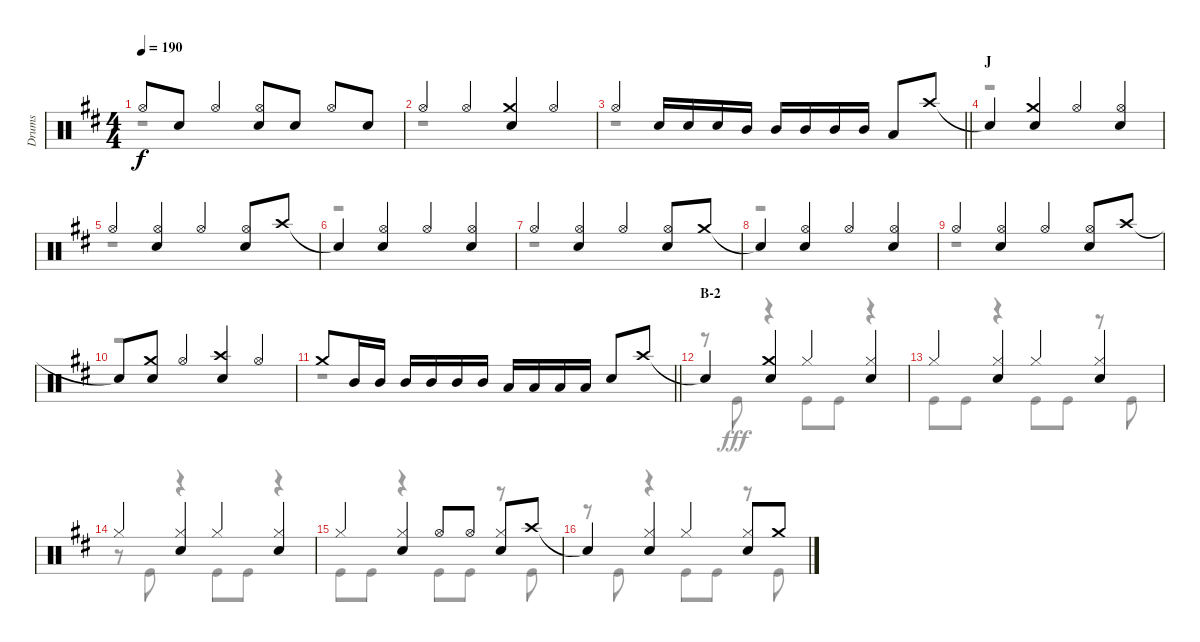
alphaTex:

\track ("Drums" "Drums") {instrument percussion}
\staff {score}
\articulation defaults
\voice
\ts (4 4)
\tempo 190
\clef neutral
\ks d "Hi-Hat (open)".8{dy f} "Snare (hit) 2".8 "Hi-Hat (open)".4
("Hi-Hat (open)" "Snare (hit) 2").8 "Snare (hit) 2".8 "Hi-Hat (open)".8 "Snare (hit) 2".8 |
"Hi-Hat (open)".4 "Hi-Hat (open)".4 ("Crash medium (hit)" "Snare (hit) 2").4 "Hi-Hat (open)".4 |
\barLineRight lightlight "Hi-Hat (open)".4 "Snare (hit) 2".16 "Snare (hit) 2".16 "Snare (hit) 2".16 "Mid Tom (hit)".16 "Mid Tom (hit)".16 "Mid Tom (hit)".16 "Mid Tom (hit)".16 "Mid Tom (hit)".16 "Low Tom (hit)".8 "Crash high (hit)".8
|
\section ("" "J")
"Snare (hit)"{t}.4 ("Crash medium (hit)" "Snare (hit) 2").4 "Hi-Hat (open)".4 ("Hi-Hat (open)" "Snare (hit) 2").4 |
"Hi-Hat (open)".4 ("Hi-Hat (open)" "Snare (hit) 2").4 "Hi-Hat (open)".4 ("Hi-Hat (open)" "Snare (hit) 2").8 "Crash high (hit)".8 |
"Snare (hit)"{t}.4 ("Hi-Hat (open)" "Snare (hit) 2").4 "Hi-Hat (open)".4 ("Hi-Hat (open)" "Snare (hit) 2").4 |
"Hi-Hat (open)".4 ("Hi-Hat (open)" "Snare (hit) 2").4 "Hi-Hat (open)".4 ("Hi-Hat (open)" "Snare (hit) 2").8 "Crash medium (hit)".8 |
"Snare (hit)"{t}.4 ("Hi-Hat (open)" "Snare (hit) 2").4 "Hi-Hat (open)".4 ("Hi-Hat (open)" "Snare (hit) 2").4 |
"Hi-Hat (open)".4 ("Hi-Hat (open)" "Snare (hit) 2").4 "Hi-Hat (open)".4 ("Hi-Hat (open)" "Snare (hit) 2").8 "Crash high (hit)".8 |
"Snare (hit)"{t}.8 ("Crash medium (hit)" "Snare (hit) 2").8 "Hi-Hat (open)".4 ("Crash high (hit)" "Snare (hit) 2").4 "Hi-Hat (open)".4 |
\barLineRight lightlight "Crash medium (hit)".8 "Mid Tom (hit)".16 "Mid Tom (hit)".16 "Mid Tom (hit)".16 "Mid Tom (hit)".16 "Mid Tom (hit)".16 "Mid Tom (hit)".16 "Low Tom (hit)".16 "Low Tom (hit)".16 "Low Tom (hit)".16 "Low Tom (hit)".16 "Snare (hit) 2".8 "Crash high (hit)".8
|
\section ("" "B-2")
"Snare (hit)"{t}.4 ("Crash medium (hit)" "Snare (hit) 2").4 "Hi-Hat (closed)".4 ("Hi-Hat (closed)" "Snare (hit) 2").4 |
"Hi-Hat (closed)".4 ("Hi-Hat (closed)" "Snare (hit) 2").4 "Hi-Hat (closed)".4 ("Hi-Hat (closed)" "Snare (hit) 2").4 |
"Hi-Hat (closed)".4 ("Hi-Hat (closed)" "Snare (hit) 2").4 "Hi-Hat (closed)".4 ("Hi-Hat (closed)" "Snare (hit) 2").4 |
"Hi-Hat (closed)".4 ("Hi-Hat (closed)" "Snare (hit) 2").4 "Hi-Hat (open)".8 "Hi-Hat (open)".8 ("Hi-Hat (closed)" "Snare (hit) 2").8 "Crash high (hit)".8 |
"Snare (hit)"{t}.4 ("Hi-Hat (closed)" "Snare (hit) 2").4 "Hi-Hat (closed)".4 ("Hi-Hat (closed)" "Snare (hit) 2").8 "Crash medium (hit)".8
\voice
\clef neutral
\ottava regular
\simile none
\ks d
r.1{dy fff} |
r.1 |
\barLineRight lightlight
r.1 |
r.1 |
r.1 |
r.1 |
r.1 |
r.1 |
r.1 |
r.1 |
\barLineRight lightlight
r.1 |
r.8 "Kick (hit)".8 r.4 "Kick (hit)".8 "Kick (hit)".8 r.4 |
"Kick (hit)".8 "Kick (hit)".8 r.4 "Kick (hit)".8 "Kick (hit)".8 r.8 "Kick (hit)".8 |
r.8 "Kick (hit)".8 r.4 "Kick (hit)".8 "Kick (hit)".8 r.4 |
"Kick (hit)".8 "Kick (hit)".8 r.4 "Kick (hit)".8 "Kick (hit)".8 r.8 "Kick (hit)".8 |
r.8 "Kick (hit)".8 r.4 "Kick (hit)".8 "Kick (hit)".8 r.8 "Kick (hit)".8
